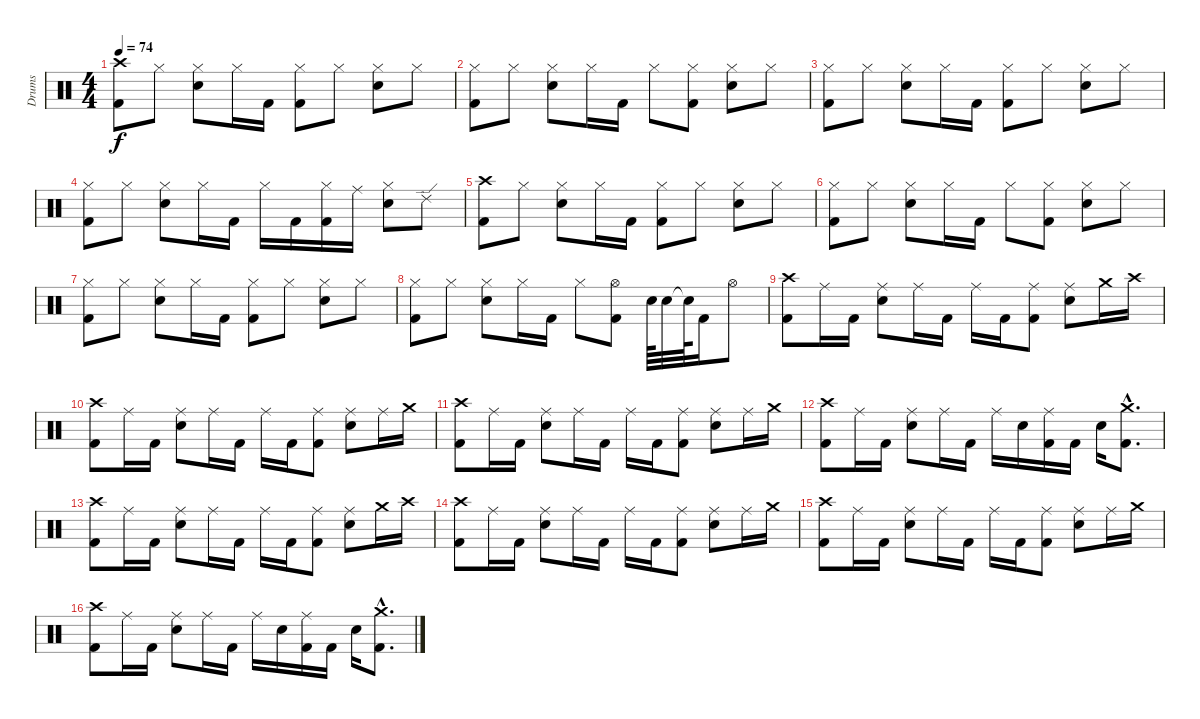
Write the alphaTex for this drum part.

\track ("Drums" "Drums") {instrument percussion}
\staff {score}
\articulation defaults
\ts (4 4)
\tempo 74
\clef neutral
\ks c
("Crash high (hit)" "Kick (hit) 2").8{dy f} "Hi-Hat (closed)".8 ("Hi-Hat (closed)" "Snare (hit) 2").8 "Hi-Hat (closed)".16 "Kick (hit) 2".16 ("Hi-Hat (closed)" "Kick (hit) 2").8 "Hi-Hat (closed)".8 ("Hi-Hat (closed)" "Snare (hit) 2").8 "Hi-Hat (closed)".8 |
("Hi-Hat (closed)" "Kick (hit) 2").8 "Hi-Hat (closed)".8 ("Hi-Hat (closed)" "Snare (hit) 2").8 "Hi-Hat (closed)".16 "Kick (hit) 2".16 "Hi-Hat (closed)".8 ("Hi-Hat (closed)" "Kick (hit) 2").8 ("Hi-Hat (closed)" "Snare (hit) 2").8 "Hi-Hat (closed)".8 |
("Hi-Hat (closed)" "Kick (hit) 2").8 "Hi-Hat (closed)".8 ("Hi-Hat (closed)" "Snare (hit) 2").8 "Hi-Hat (closed)".16 "Kick (hit) 2".16 ("Hi-Hat (closed)" "Kick (hit) 2").8 "Hi-Hat (closed)".8 ("Hi-Hat (closed)" "Snare (hit) 2").8 "Hi-Hat (closed)".8 |
("Hi-Hat (closed)" "Kick (hit) 2").8 "Hi-Hat (closed)".8 ("Hi-Hat (closed)" "Snare (hit) 2").8 "Hi-Hat (closed)".16 "Kick (hit) 2".16 "Hi-Hat (closed)".16 "Kick (hit) 2".16 ("Hi-Hat (closed)" "Kick (hit) 2").16 "Ride (middle)".16 ("Hi-Hat (closed)" "Snare (hit) 2").8 "Ride (edge) 2".8 |
("Crash high (hit)" "Kick (hit) 2").8 "Hi-Hat (closed)".8 ("Hi-Hat (closed)" "Snare (hit) 2").8 "Hi-Hat (closed)".16 "Kick (hit) 2".16 ("Hi-Hat (closed)" "Kick (hit) 2").8 "Hi-Hat (closed)".8 ("Hi-Hat (closed)" "Snare (hit) 2").8 "Hi-Hat (closed)".8 |
("Hi-Hat (closed)" "Kick (hit) 2").8 "Hi-Hat (closed)".8 ("Hi-Hat (closed)" "Snare (hit) 2").8 "Hi-Hat (closed)".16 "Kick (hit) 2".16 "Hi-Hat (closed)".8 ("Hi-Hat (closed)" "Kick (hit) 2").8 ("Hi-Hat (closed)" "Snare (hit) 2").8 "Hi-Hat (closed)".8 |
("Hi-Hat (closed)" "Kick (hit) 2").8 "Hi-Hat (closed)".8 ("Hi-Hat (closed)" "Snare (hit) 2").8 "Hi-Hat (closed)".16 "Kick (hit) 2".16 ("Hi-Hat (closed)" "Kick (hit) 2").8 "Hi-Hat (closed)".8 ("Hi-Hat (closed)" "Snare (hit) 2").8 "Hi-Hat (closed)".8 |
("Hi-Hat (closed)" "Kick (hit) 2").8 "Hi-Hat (closed)".8 ("Hi-Hat (closed)" "Snare (hit) 2").8 "Hi-Hat (closed)".16 "Kick (hit) 2".16 "Hi-Hat (closed)".8 ("Hi-Hat (open)" "Kick (hit) 2").8 "Snare (hit) 2".64 "Snare (hit) 2".32 "Electric Snare (hit)"{t}.64 "Kick (hit) 2".16 "Hi-Hat (open)".8 |
("Crash high (hit)" "Kick (hit) 2").8 "Ride (middle)".16 "Kick (hit) 2".16 ("Ride (middle)" "Snare (hit) 2").8 "Ride (middle)".16 "Kick (hit) 2".16 "Ride (middle)".16 "Kick (hit) 2".16 ("Ride (middle)" "Kick (hit) 2").8 ("Ride (middle)" "Snare (hit) 2").8 "Crash medium (hit)".16 "Crash high (hit)".16 |
("Crash high (hit)" "Kick (hit) 2").8 "Ride (middle)".16 "Kick (hit) 2".16 ("Ride (middle)" "Snare (hit) 2").8 "Ride (middle)".16 "Kick (hit) 2".16 "Ride (middle)".16 "Kick (hit) 2".16 ("Ride (middle)" "Kick (hit) 2").8 ("Ride (middle)" "Snare (hit) 2").8 "Ride (middle)".16 "Crash medium (hit)".16 |
("Crash high (hit)" "Kick (hit) 2").8 "Ride (middle)".16 "Kick (hit) 2".16 ("Ride (middle)" "Snare (hit) 2").8 "Ride (middle)".16 "Kick (hit) 2".16 "Ride (middle)".16 "Kick (hit) 2".16 ("Ride (middle)" "Kick (hit) 2").8 ("Ride (middle)" "Snare (hit) 2").8 "Ride (middle)".16 "Crash medium (hit)".16 |
("Crash high (hit)" "Kick (hit) 2").8 "Ride (middle)".16 "Kick (hit) 2".16 ("Ride (middle)" "Snare (hit) 2").8 "Ride (middle)".16 "Kick (hit) 2".16 "Ride (middle)".16 "Snare (hit) 2".16 ("Ride (middle)" "Kick (hit) 2").16 "Kick (hit) 2".16 "Snare (hit) 2".16 ("Crash medium (hit)"{hac} "Kick (hit) 2"{hac}).8{d} |
("Crash high (hit)" "Kick (hit) 2").8 "Ride (middle)".16 "Kick (hit) 2".16 ("Ride (middle)" "Snare (hit) 2").8 "Ride (middle)".16 "Kick (hit) 2".16 "Ride (middle)".16 "Kick (hit) 2".16 ("Ride (middle)" "Kick (hit) 2").8 ("Ride (middle)" "Snare (hit) 2").8 "Crash medium (hit)".16 "Crash high (hit)".16 |
("Crash high (hit)" "Kick (hit) 2").8 "Ride (middle)".16 "Kick (hit) 2".16 ("Ride (middle)" "Snare (hit) 2").8 "Ride (middle)".16 "Kick (hit) 2".16 "Ride (middle)".16 "Kick (hit) 2".16 ("Ride (middle)" "Kick (hit) 2").8 ("Ride (middle)" "Snare (hit) 2").8 "Ride (middle)".16 "Crash medium (hit)".16 |
("Crash high (hit)" "Kick (hit) 2").8 "Ride (middle)".16 "Kick (hit) 2".16 ("Ride (middle)" "Snare (hit) 2").8 "Ride (middle)".16 "Kick (hit) 2".16 "Ride (middle)".16 "Kick (hit) 2".16 ("Ride (middle)" "Kick (hit) 2").8 ("Ride (middle)" "Snare (hit) 2").8 "Ride (middle)".16 "Crash medium (hit)".16 |
("Crash high (hit)" "Kick (hit) 2").8 "Ride (middle)".16 "Kick (hit) 2".16 ("Ride (middle)" "Snare (hit) 2").8 "Ride (middle)".16 "Kick (hit) 2".16 "Ride (middle)".16 "Snare (hit) 2".16 ("Ride (middle)" "Kick (hit) 2").16 "Kick (hit) 2".16 "Snare (hit) 2".16 ("Crash medium (hit)"{hac} "Kick (hit) 2"{hac}).8{d}
